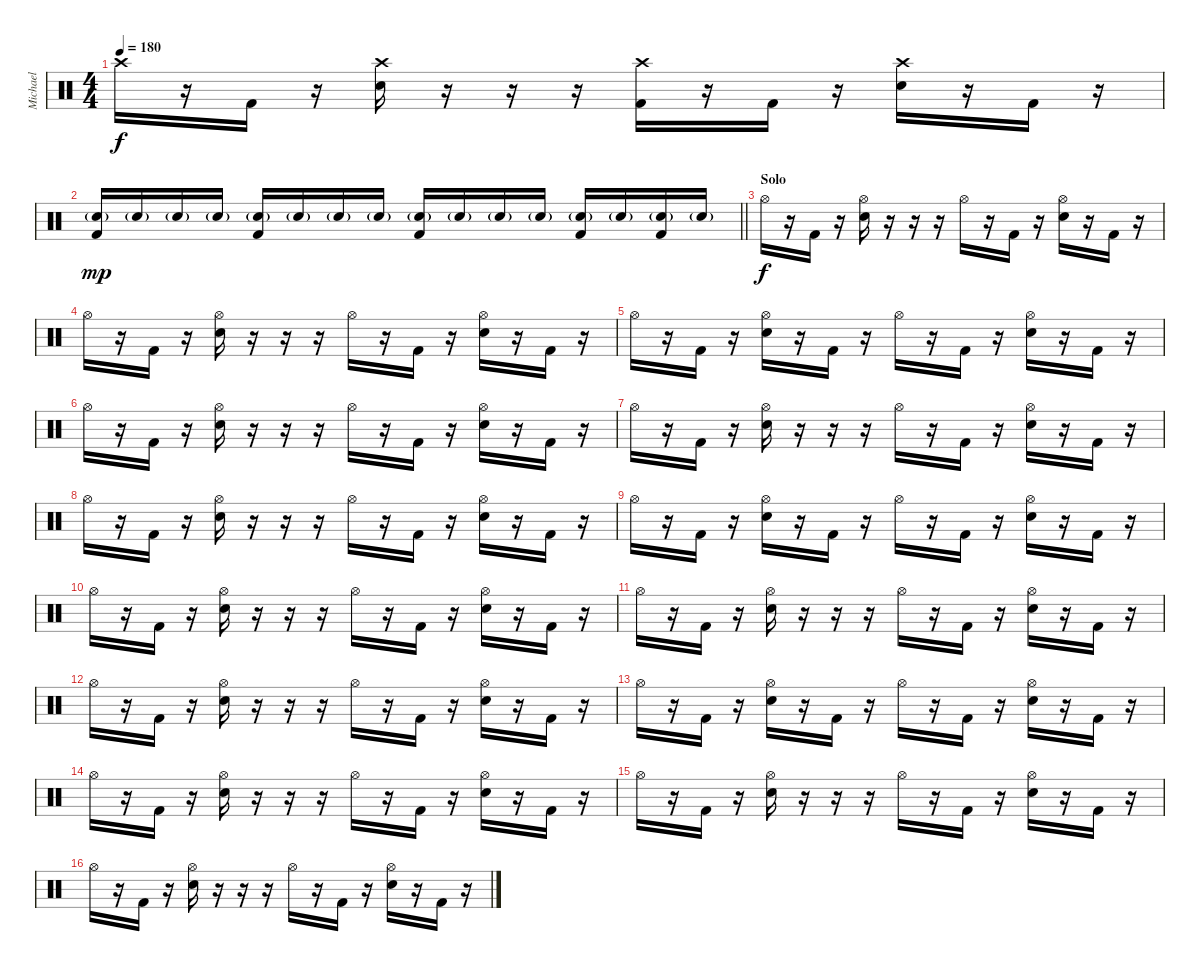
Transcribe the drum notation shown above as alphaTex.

\track ("Michael" "Michael") {instrument percussion}
\staff {score}
\articulation defaults
\ts (4 4)
\tempo 180
\clef neutral
\ks c "Crash high (hit)".16{dy f}
r.16 "Kick (hit) 2".16 r.16 ("Crash high (hit)" "Electric Snare (hit)").16 r.16 r.16 r.16 ("Crash high (hit)" "Kick (hit) 2").16 r.16 "Kick (hit) 2".16 r.16 ("Crash high (hit)" "Electric Snare (hit)").16 r.16 "Kick (hit) 2".16 r.16 |
\barLineRight lightlight
("Electric Snare (hit)"{g} "Kick (hit) 2").16{dy mp} "Electric Snare (hit)"{g}.16 "Electric Snare (hit)"{g}.16 "Electric Snare (hit)"{g}.16 ("Electric Snare (hit)"{g} "Kick (hit) 2").16 "Electric Snare (hit)"{g}.16 "Electric Snare (hit)"{g}.16 "Electric Snare (hit)"{g}.16 ("Electric Snare (hit)"{g} "Kick (hit) 2").16 "Electric Snare (hit)"{g}.16 "Electric Snare (hit)"{g}.16 "Electric Snare (hit)"{g}.16 ("Electric Snare (hit)"{g} "Kick (hit) 2").16 "Electric Snare (hit)"{g}.16 ("Electric Snare (hit)"{g} "Kick (hit) 2").16 "Electric Snare (hit)"{g}.16 |
\section ("" "Solo")
"Hi-Hat (open)".16{dy f} r.16 "Kick (hit) 2".16 r.16 ("Hi-Hat (open)" "Electric Snare (hit)").16 r.16 r.16 r.16 "Hi-Hat (open)".16 r.16 "Kick (hit) 2".16 r.16 ("Hi-Hat (open)" "Electric Snare (hit)").16 r.16 "Kick (hit) 2".16 r.16 |
"Hi-Hat (open)".16 r.16 "Kick (hit) 2".16 r.16 ("Hi-Hat (open)" "Electric Snare (hit)").16 r.16 r.16 r.16 "Hi-Hat (open)".16 r.16 "Kick (hit) 2".16 r.16 ("Hi-Hat (open)" "Electric Snare (hit)").16 r.16 "Kick (hit) 2".16 r.16 |
"Hi-Hat (open)".16 r.16 "Kick (hit) 2".16 r.16 ("Hi-Hat (open)" "Electric Snare (hit)").16 r.16 "Kick (hit) 2".16 r.16 "Hi-Hat (open)".16 r.16 "Kick (hit) 2".16 r.16 ("Hi-Hat (open)" "Electric Snare (hit)").16 r.16 "Kick (hit) 2".16 r.16 |
"Hi-Hat (open)".16 r.16 "Kick (hit) 2".16 r.16 ("Hi-Hat (open)" "Electric Snare (hit)").16 r.16 r.16 r.16 "Hi-Hat (open)".16 r.16 "Kick (hit) 2".16 r.16 ("Hi-Hat (open)" "Electric Snare (hit)").16 r.16 "Kick (hit) 2".16 r.16 |
"Hi-Hat (open)".16 r.16 "Kick (hit) 2".16 r.16 ("Hi-Hat (open)" "Electric Snare (hit)").16 r.16 r.16 r.16 "Hi-Hat (open)".16 r.16 "Kick (hit) 2".16 r.16 ("Hi-Hat (open)" "Electric Snare (hit)").16 r.16 "Kick (hit) 2".16 r.16 |
"Hi-Hat (open)".16 r.16 "Kick (hit) 2".16 r.16 ("Hi-Hat (open)" "Electric Snare (hit)").16 r.16 r.16 r.16 "Hi-Hat (open)".16 r.16 "Kick (hit) 2".16 r.16 ("Hi-Hat (open)" "Electric Snare (hit)").16 r.16 "Kick (hit) 2".16 r.16 |
"Hi-Hat (open)".16 r.16 "Kick (hit) 2".16 r.16 ("Hi-Hat (open)" "Electric Snare (hit)").16 r.16 "Kick (hit) 2".16 r.16 "Hi-Hat (open)".16 r.16 "Kick (hit) 2".16 r.16 ("Hi-Hat (open)" "Electric Snare (hit)").16 r.16 "Kick (hit) 2".16 r.16 |
"Hi-Hat (open)".16 r.16 "Kick (hit) 2".16 r.16 ("Hi-Hat (open)" "Electric Snare (hit)").16 r.16 r.16 r.16 "Hi-Hat (open)".16 r.16 "Kick (hit) 2".16 r.16 ("Hi-Hat (open)" "Electric Snare (hit)").16 r.16 "Kick (hit) 2".16 r.16 |
"Hi-Hat (open)".16 r.16 "Kick (hit) 2".16 r.16 ("Hi-Hat (open)" "Electric Snare (hit)").16 r.16 r.16 r.16 "Hi-Hat (open)".16 r.16 "Kick (hit) 2".16 r.16 ("Hi-Hat (open)" "Electric Snare (hit)").16 r.16 "Kick (hit) 2".16 r.16 |
"Hi-Hat (open)".16 r.16 "Kick (hit) 2".16 r.16 ("Hi-Hat (open)" "Electric Snare (hit)").16 r.16 r.16 r.16 "Hi-Hat (open)".16 r.16 "Kick (hit) 2".16 r.16 ("Hi-Hat (open)" "Electric Snare (hit)").16 r.16 "Kick (hit) 2".16 r.16 |
"Hi-Hat (open)".16 r.16 "Kick (hit) 2".16 r.16 ("Hi-Hat (open)" "Electric Snare (hit)").16 r.16 "Kick (hit) 2".16 r.16 "Hi-Hat (open)".16 r.16 "Kick (hit) 2".16 r.16 ("Hi-Hat (open)" "Electric Snare (hit)").16 r.16 "Kick (hit) 2".16 r.16 |
"Hi-Hat (open)".16 r.16 "Kick (hit) 2".16 r.16 ("Hi-Hat (open)" "Electric Snare (hit)").16 r.16 r.16 r.16 "Hi-Hat (open)".16 r.16 "Kick (hit) 2".16 r.16 ("Hi-Hat (open)" "Electric Snare (hit)").16 r.16 "Kick (hit) 2".16 r.16 |
"Hi-Hat (open)".16 r.16 "Kick (hit) 2".16 r.16 ("Hi-Hat (open)" "Electric Snare (hit)").16 r.16 r.16 r.16 "Hi-Hat (open)".16 r.16 "Kick (hit) 2".16 r.16 ("Hi-Hat (open)" "Electric Snare (hit)").16 r.16 "Kick (hit) 2".16 r.16 |
"Hi-Hat (open)".16 r.16 "Kick (hit) 2".16 r.16 ("Hi-Hat (open)" "Electric Snare (hit)").16 r.16 r.16 r.16 "Hi-Hat (open)".16 r.16 "Kick (hit) 2".16 r.16 ("Hi-Hat (open)" "Electric Snare (hit)").16 r.16 "Kick (hit) 2".16 r.16
